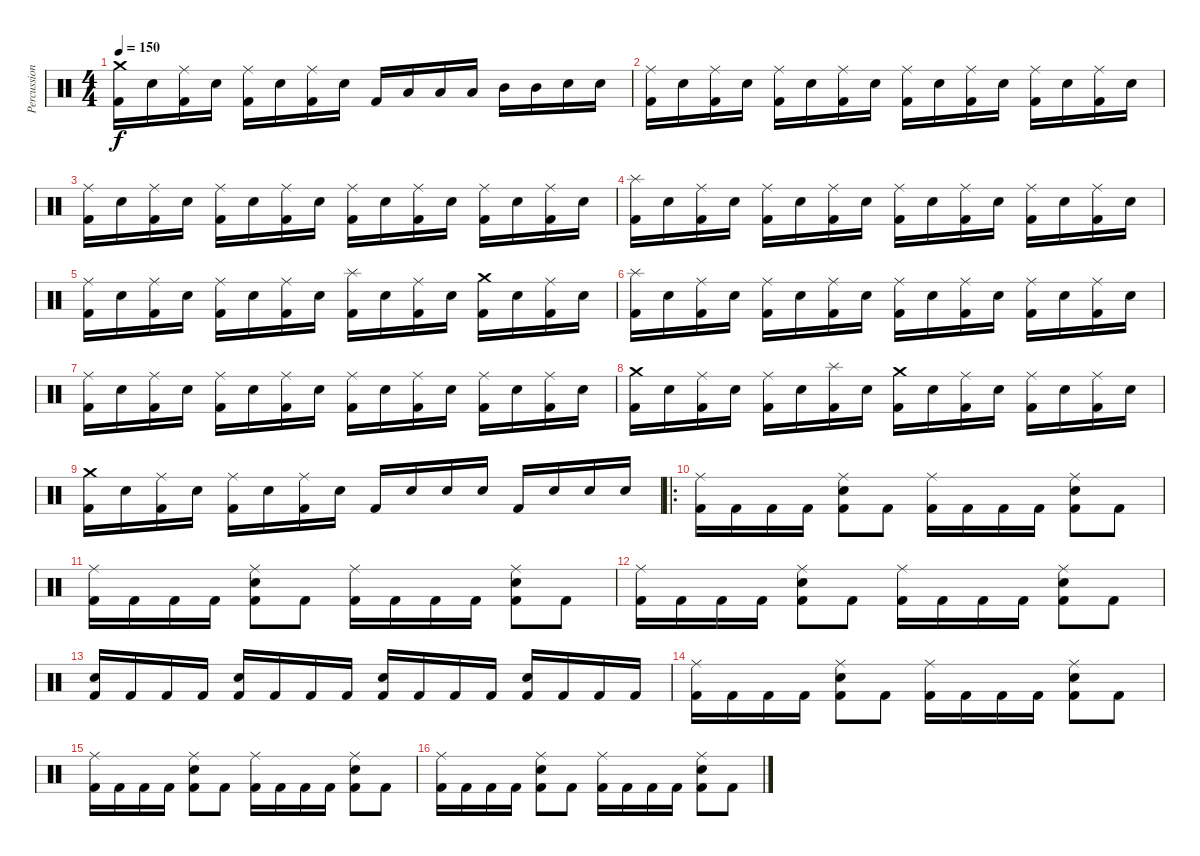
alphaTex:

\track ("Percussions" "Percussion") {instrument percussion}
\staff {score}
\articulation defaults
\ts (4 4)
\tempo 150
\clef neutral
\ks c
("Crash medium (hit)" "Kick (hit) 2").16{dy f} "Snare (hit) 2".16 ("Ride (middle)" "Kick (hit) 2").16 "Snare (hit) 2".16 ("Ride (middle)" "Kick (hit) 2").16 "Snare (hit) 2".16 ("Ride (middle)" "Kick (hit) 2").16 "Snare (hit) 2".16 "Kick (hit) 2".16 "Low Tom (hit)".16 "Low Tom (hit)".16 "Low Tom (hit)".16 "Mid Tom (hit)".16 "Mid Tom (hit)".16 "Snare (hit) 2".16 "Snare (hit) 2".16 |
("Ride (middle)" "Kick (hit) 2").16 "Snare (hit) 2".16 ("Ride (middle)" "Kick (hit) 2").16 "Snare (hit) 2".16 ("Ride (middle)" "Kick (hit) 2").16 "Snare (hit) 2".16 ("Ride (middle)" "Kick (hit) 2").16 "Snare (hit) 2".16 ("Ride (middle)" "Kick (hit) 2").16 "Snare (hit) 2".16 ("Ride (middle)" "Kick (hit) 2").16 "Snare (hit) 2".16 ("Ride (middle)" "Kick (hit) 2").16 "Snare (hit) 2".16 ("Ride (middle)" "Kick (hit) 2").16 "Snare (hit) 2".16 |
("Ride (middle)" "Kick (hit) 2").16 "Snare (hit) 2".16 ("Ride (middle)" "Kick (hit) 2").16 "Snare (hit) 2".16 ("Ride (middle)" "Kick (hit) 2").16 "Snare (hit) 2".16 ("Ride (middle)" "Kick (hit) 2").16 "Snare (hit) 2".16 ("Ride (middle)" "Kick (hit) 2").16 "Snare (hit) 2".16 ("Ride (middle)" "Kick (hit) 2").16 "Snare (hit) 2".16 ("Ride (middle)" "Kick (hit) 2").16 "Snare (hit) 2".16 ("Ride (middle)" "Kick (hit) 2").16 "Snare (hit) 2".16 |
("Splash (hit)" "Kick (hit) 2").16 "Snare (hit) 2".16 ("Ride (middle)" "Kick (hit) 2").16 "Snare (hit) 2".16 ("Ride (middle)" "Kick (hit) 2").16 "Snare (hit) 2".16 ("Ride (middle)" "Kick (hit) 2").16 "Snare (hit) 2".16 ("Ride (middle)" "Kick (hit) 2").16 "Snare (hit) 2".16 ("Ride (middle)" "Kick (hit) 2").16 "Snare (hit) 2".16 ("Ride (middle)" "Kick (hit) 2").16 "Snare (hit) 2".16 ("Ride (middle)" "Kick (hit) 2").16 "Snare (hit) 2".16 |
("Ride (middle)" "Kick (hit) 2").16 "Snare (hit) 2".16 ("Ride (middle)" "Kick (hit) 2").16 "Snare (hit) 2".16 ("Ride (middle)" "Kick (hit) 2").16 "Snare (hit) 2".16 ("Ride (middle)" "Kick (hit) 2").16 "Snare (hit) 2".16 ("Splash (hit)" "Kick (hit) 2").16 "Snare (hit) 2".16 ("Ride (middle)" "Kick (hit) 2").16 "Snare (hit) 2".16 ("Crash medium (hit)" "Kick (hit) 2").16 "Snare (hit) 2".16 ("Ride (middle)" "Kick (hit) 2").16 "Snare (hit) 2".16 |
("Splash (hit)" "Kick (hit) 2").16 "Snare (hit) 2".16 ("Ride (middle)" "Kick (hit) 2").16 "Snare (hit) 2".16 ("Ride (middle)" "Kick (hit) 2").16 "Snare (hit) 2".16 ("Ride (middle)" "Kick (hit) 2").16 "Snare (hit) 2".16 ("Ride (middle)" "Kick (hit) 2").16 "Snare (hit) 2".16 ("Ride (middle)" "Kick (hit) 2").16 "Snare (hit) 2".16 ("Ride (middle)" "Kick (hit) 2").16 "Snare (hit) 2".16 ("Ride (middle)" "Kick (hit) 2").16 "Snare (hit) 2".16 |
("Ride (middle)" "Kick (hit) 2").16 "Snare (hit) 2".16 ("Ride (middle)" "Kick (hit) 2").16 "Snare (hit) 2".16 ("Ride (middle)" "Kick (hit) 2").16 "Snare (hit) 2".16 ("Ride (middle)" "Kick (hit) 2").16 "Snare (hit) 2".16 ("Ride (middle)" "Kick (hit) 2").16 "Snare (hit) 2".16 ("Ride (middle)" "Kick (hit) 2").16 "Snare (hit) 2".16 ("Ride (middle)" "Kick (hit) 2").16 "Snare (hit) 2".16 ("Ride (middle)" "Kick (hit) 2").16 "Snare (hit) 2".16 |
("Crash medium (hit)" "Kick (hit) 2").16 "Snare (hit) 2".16 ("Ride (middle)" "Kick (hit) 2").16 "Snare (hit) 2".16 ("Ride (middle)" "Kick (hit) 2").16 "Snare (hit) 2".16 ("Splash (hit)" "Kick (hit) 2").16 "Snare (hit) 2".16 ("Crash medium (hit)" "Kick (hit) 2").16 "Snare (hit) 2".16 ("Ride (middle)" "Kick (hit) 2").16 "Snare (hit) 2".16 ("Ride (middle)" "Kick (hit) 2").16 "Snare (hit) 2".16 ("Ride (middle)" "Kick (hit) 2").16 "Snare (hit) 2".16 |
("Crash medium (hit)" "Kick (hit) 2").16 "Snare (hit) 2".16 ("Ride (middle)" "Kick (hit) 2").16 "Snare (hit) 2".16 ("Ride (middle)" "Kick (hit) 2").16 "Snare (hit) 2".16 ("Ride (middle)" "Kick (hit) 2").16 "Snare (hit) 2".16 "Kick (hit) 2".16 "Snare (hit) 2".16 "Snare (hit) 2".16 "Snare (hit) 2".16 "Kick (hit) 2".16 "Snare (hit) 2".16 "Snare (hit) 2".16 "Snare (hit) 2".16 |
\ro
("Ride (middle)" "Kick (hit) 2").16 "Kick (hit) 2".16 "Kick (hit) 2".16 "Kick (hit) 2".16 ("Ride (middle)" "Snare (hit) 2" "Kick (hit) 2").8 "Kick (hit) 2".8 ("Ride (middle)" "Kick (hit) 2").16 "Kick (hit) 2".16 "Kick (hit) 2".16 "Kick (hit) 2".16 ("Ride (middle)" "Snare (hit) 2" "Kick (hit) 2").8 "Kick (hit) 2".8 |
("Ride (middle)" "Kick (hit) 2").16 "Kick (hit) 2".16 "Kick (hit) 2".16 "Kick (hit) 2".16 ("Ride (middle)" "Snare (hit) 2" "Kick (hit) 2").8 "Kick (hit) 2".8 ("Ride (middle)" "Kick (hit) 2").16 "Kick (hit) 2".16 "Kick (hit) 2".16 "Kick (hit) 2".16 ("Ride (middle)" "Snare (hit) 2" "Kick (hit) 2").8 "Kick (hit) 2".8 |
("Ride (middle)" "Kick (hit) 2").16 "Kick (hit) 2".16 "Kick (hit) 2".16 "Kick (hit) 2".16 ("Ride (middle)" "Snare (hit) 2" "Kick (hit) 2").8 "Kick (hit) 2".8 ("Ride (middle)" "Kick (hit) 2").16 "Kick (hit) 2".16 "Kick (hit) 2".16 "Kick (hit) 2".16 ("Ride (middle)" "Snare (hit) 2" "Kick (hit) 2").8 "Kick (hit) 2".8 |
("Snare (hit) 2" "Kick (hit) 2").16 "Kick (hit) 2".16 "Kick (hit) 2".16 "Kick (hit) 2".16 ("Snare (hit) 2" "Kick (hit) 2").16 "Kick (hit) 2".16 "Kick (hit) 2".16 "Kick (hit) 2".16 ("Snare (hit) 2" "Kick (hit) 2").16 "Kick (hit) 2".16 "Kick (hit) 2".16 "Kick (hit) 2".16 ("Snare (hit) 2" "Kick (hit) 2").16 "Kick (hit) 2".16 "Kick (hit) 2".16 "Kick (hit) 2".16 |
("Ride (middle)" "Kick (hit) 2").16 "Kick (hit) 2".16 "Kick (hit) 2".16 "Kick (hit) 2".16 ("Ride (middle)" "Snare (hit) 2" "Kick (hit) 2").8 "Kick (hit) 2".8 ("Ride (middle)" "Kick (hit) 2").16 "Kick (hit) 2".16 "Kick (hit) 2".16 "Kick (hit) 2".16 ("Ride (middle)" "Snare (hit) 2" "Kick (hit) 2").8 "Kick (hit) 2".8 |
("Ride (middle)" "Kick (hit) 2").16 "Kick (hit) 2".16 "Kick (hit) 2".16 "Kick (hit) 2".16 ("Ride (middle)" "Snare (hit) 2" "Kick (hit) 2").8 "Kick (hit) 2".8 ("Ride (middle)" "Kick (hit) 2").16 "Kick (hit) 2".16 "Kick (hit) 2".16 "Kick (hit) 2".16 ("Ride (middle)" "Snare (hit) 2" "Kick (hit) 2").8 "Kick (hit) 2".8 |
("Ride (middle)" "Kick (hit) 2").16 "Kick (hit) 2".16 "Kick (hit) 2".16 "Kick (hit) 2".16 ("Ride (middle)" "Snare (hit) 2" "Kick (hit) 2").8 "Kick (hit) 2".8 ("Ride (middle)" "Kick (hit) 2").16 "Kick (hit) 2".16 "Kick (hit) 2".16 "Kick (hit) 2".16 ("Ride (middle)" "Snare (hit) 2" "Kick (hit) 2").8 "Kick (hit) 2".8
